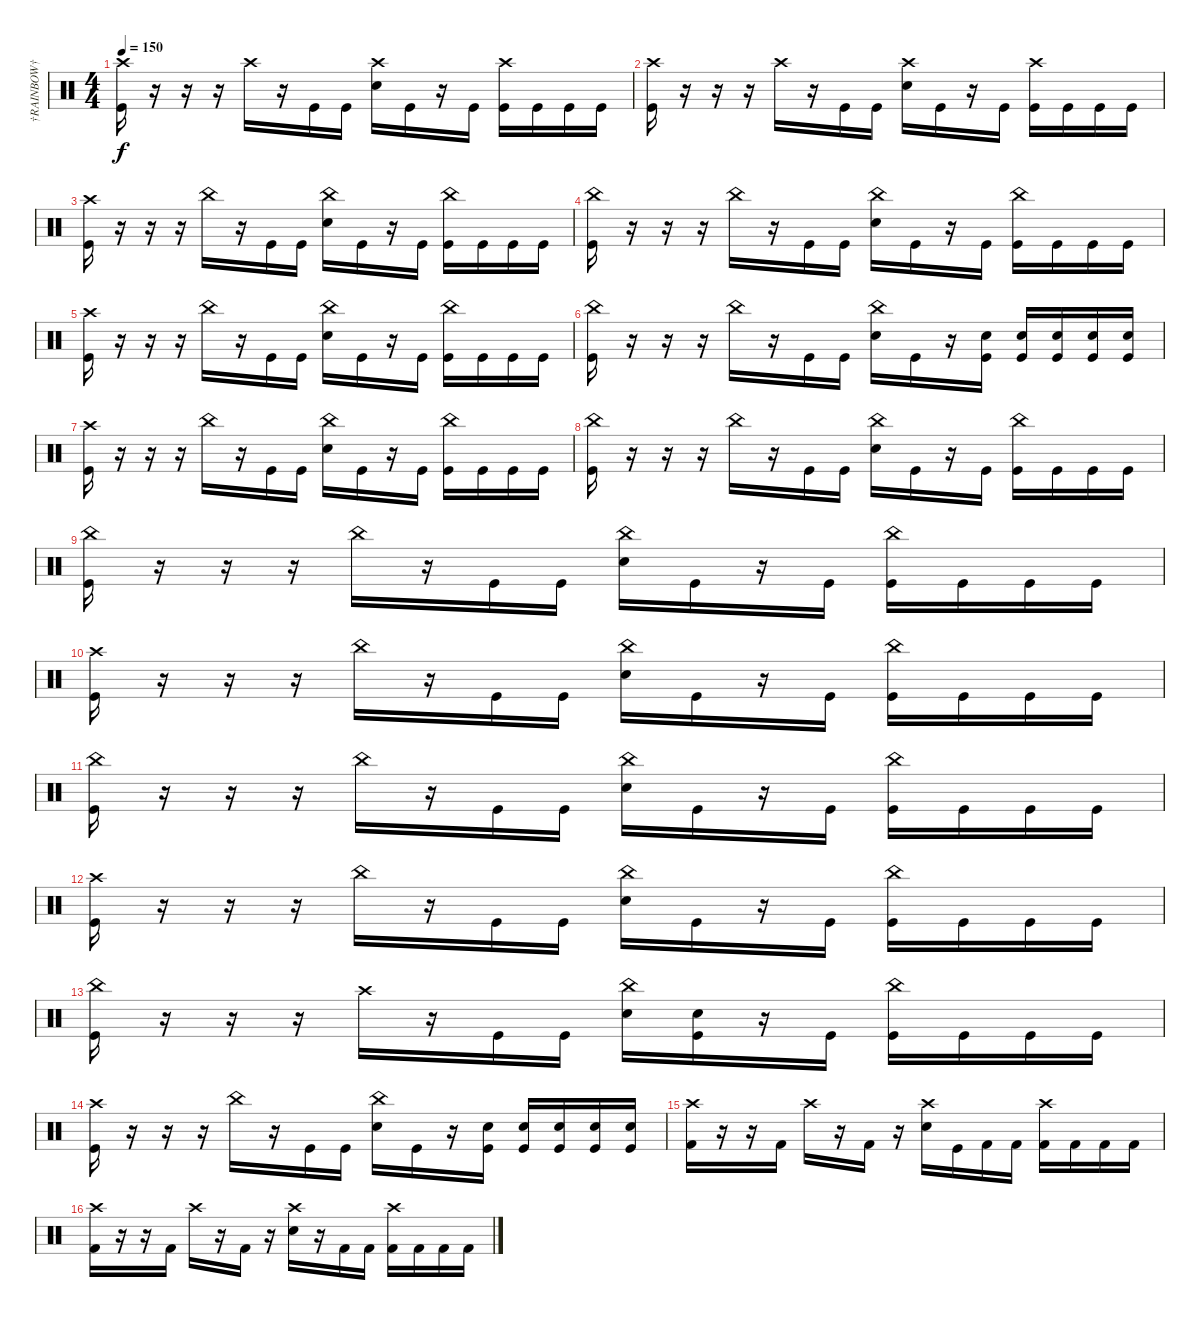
\track ("†RAINBOW†" "†RAINBOW†") {instrument percussion}
\staff {score}
\articulation defaults
\ts (4 4)
\tempo 150
\clef neutral
\ks c
("Crash high (hit)" "Kick (hit)").16{dy f} r.16 r.16 r.16 "Crash high (hit)".16 r.16 "Kick (hit)".16 "Kick (hit)".16 ("Crash high (hit)" "Electric Snare (hit)").16 "Kick (hit)".16 r.16 "Kick (hit)".16 ("Crash high (hit)" "Kick (hit)").16 "Kick (hit)".16 "Kick (hit)".16 "Kick (hit)".16 |
("Crash high (hit)" "Kick (hit)").16 r.16 r.16 r.16 "Crash high (hit)".16 r.16 "Kick (hit)".16 "Kick (hit)".16 ("Crash high (hit)" "Electric Snare (hit)").16 "Kick (hit)".16 r.16 "Kick (hit)".16 ("Crash high (hit)" "Kick (hit)").16 "Kick (hit)".16 "Kick (hit)".16 "Kick (hit)".16 |
("Crash high (hit)" "Kick (hit)").16 r.16 r.16 r.16 "China (hit)".16 r.16 "Kick (hit)".16 "Kick (hit)".16 ("China (hit)" "Electric Snare (hit)").16 "Kick (hit)".16 r.16 "Kick (hit)".16 ("China (hit)" "Kick (hit)").16 "Kick (hit)".16 "Kick (hit)".16 "Kick (hit)".16 |
("China (hit)" "Kick (hit)").16 r.16 r.16 r.16 "China (hit)".16 r.16 "Kick (hit)".16 "Kick (hit)".16 ("China (hit)" "Electric Snare (hit)").16 "Kick (hit)".16 r.16 "Kick (hit)".16 ("China (hit)" "Kick (hit)").16 "Kick (hit)".16 "Kick (hit)".16 "Kick (hit)".16 |
("Crash high (hit)" "Kick (hit)").16 r.16 r.16 r.16 "China (hit)".16 r.16 "Kick (hit)".16 "Kick (hit)".16 ("China (hit)" "Electric Snare (hit)").16 "Kick (hit)".16 r.16 "Kick (hit)".16 ("China (hit)" "Kick (hit)").16 "Kick (hit)".16 "Kick (hit)".16 "Kick (hit)".16 |
("China (hit)" "Kick (hit)").16 r.16 r.16 r.16 "China (hit)".16 r.16 "Kick (hit)".16 "Kick (hit)".16 ("China (hit)" "Electric Snare (hit)").16 "Kick (hit)".16 r.16 ("Electric Snare (hit)" "Kick (hit)").16 ("Electric Snare (hit)" "Kick (hit)").16 ("Electric Snare (hit)" "Kick (hit)").16 ("Electric Snare (hit)" "Kick (hit)").16 ("Electric Snare (hit)" "Kick (hit)").16 |
("Crash high (hit)" "Kick (hit)").16 r.16 r.16 r.16 "China (hit)".16 r.16 "Kick (hit)".16 "Kick (hit)".16 ("China (hit)" "Electric Snare (hit)").16 "Kick (hit)".16 r.16 "Kick (hit)".16 ("China (hit)" "Kick (hit)").16 "Kick (hit)".16 "Kick (hit)".16 "Kick (hit)".16 |
("China (hit)" "Kick (hit)").16 r.16 r.16 r.16 "China (hit)".16 r.16 "Kick (hit)".16 "Kick (hit)".16 ("China (hit)" "Electric Snare (hit)").16 "Kick (hit)".16 r.16 "Kick (hit)".16 ("China (hit)" "Kick (hit)").16 "Kick (hit)".16 "Kick (hit)".16 "Kick (hit)".16 |
("China (hit)" "Kick (hit)").16 r.16 r.16 r.16 "China (hit)".16 r.16 "Kick (hit)".16 "Kick (hit)".16 ("China (hit)" "Electric Snare (hit)").16 "Kick (hit)".16 r.16 "Kick (hit)".16 ("China (hit)" "Kick (hit)").16 "Kick (hit)".16 "Kick (hit)".16 "Kick (hit)".16 |
("Crash high (hit)" "Kick (hit)").16 r.16 r.16 r.16 "China (hit)".16 r.16 "Kick (hit)".16 "Kick (hit)".16 ("China (hit)" "Electric Snare (hit)").16 "Kick (hit)".16 r.16 "Kick (hit)".16 ("China (hit)" "Kick (hit)").16 "Kick (hit)".16 "Kick (hit)".16 "Kick (hit)".16 |
("China (hit)" "Kick (hit)").16 r.16 r.16 r.16 "China (hit)".16 r.16 "Kick (hit)".16 "Kick (hit)".16 ("China (hit)" "Electric Snare (hit)").16 "Kick (hit)".16 r.16 "Kick (hit)".16 ("China (hit)" "Kick (hit)").16 "Kick (hit)".16 "Kick (hit)".16 "Kick (hit)".16 |
("Crash high (hit)" "Kick (hit)").16 r.16 r.16 r.16 "China (hit)".16 r.16 "Kick (hit)".16 "Kick (hit)".16 ("China (hit)" "Electric Snare (hit)").16 "Kick (hit)".16 r.16 "Kick (hit)".16 ("China (hit)" "Kick (hit)").16 "Kick (hit)".16 "Kick (hit)".16 "Kick (hit)".16 |
("China (hit)" "Kick (hit)").16 r.16 r.16 r.16 "Crash high (hit)".16 r.16 "Kick (hit)".16 "Kick (hit)".16 ("China (hit)" "Electric Snare (hit)").16 ("Snare (hit)" "Kick (hit)").16 r.16 "Kick (hit)".16 ("China (hit)" "Kick (hit)").16 "Kick (hit)".16 "Kick (hit)".16 "Kick (hit)".16 |
("Crash high (hit)" "Kick (hit)").16 r.16 r.16 r.16 "China (hit)".16 r.16 "Kick (hit)".16 "Kick (hit)".16 ("China (hit)" "Electric Snare (hit)").16 "Kick (hit)".16 r.16 ("Electric Snare (hit)" "Kick (hit)").16 ("Electric Snare (hit)" "Kick (hit)").16 ("Electric Snare (hit)" "Kick (hit)").16 ("Electric Snare (hit)" "Kick (hit)").16 ("Electric Snare (hit)" "Kick (hit)").16 |
("Crash high (hit)" "Kick (hit) 2").16 r.16 r.16 "Kick (hit) 2".16 "Crash high (hit)".16 r.16 "Kick (hit) 2".16 r.16 ("Crash high (hit)" "Electric Snare (hit)").16 "Kick (hit)".16 "Kick (hit) 2".16 "Kick (hit) 2".16 ("Crash high (hit)" "Kick (hit) 2").16 "Kick (hit) 2".16 "Kick (hit) 2".16 "Kick (hit) 2".16 |
("Crash high (hit)" "Kick (hit) 2").16 r.16 r.16 "Kick (hit) 2".16 "Crash high (hit)".16 r.16 "Kick (hit) 2".16 r.16 ("Crash high (hit)" "Electric Snare (hit)").16 r.16 "Kick (hit) 2".16 "Kick (hit) 2".16 ("Crash high (hit)" "Kick (hit) 2").16 "Kick (hit) 2".16 "Kick (hit) 2".16 "Kick (hit) 2".16
